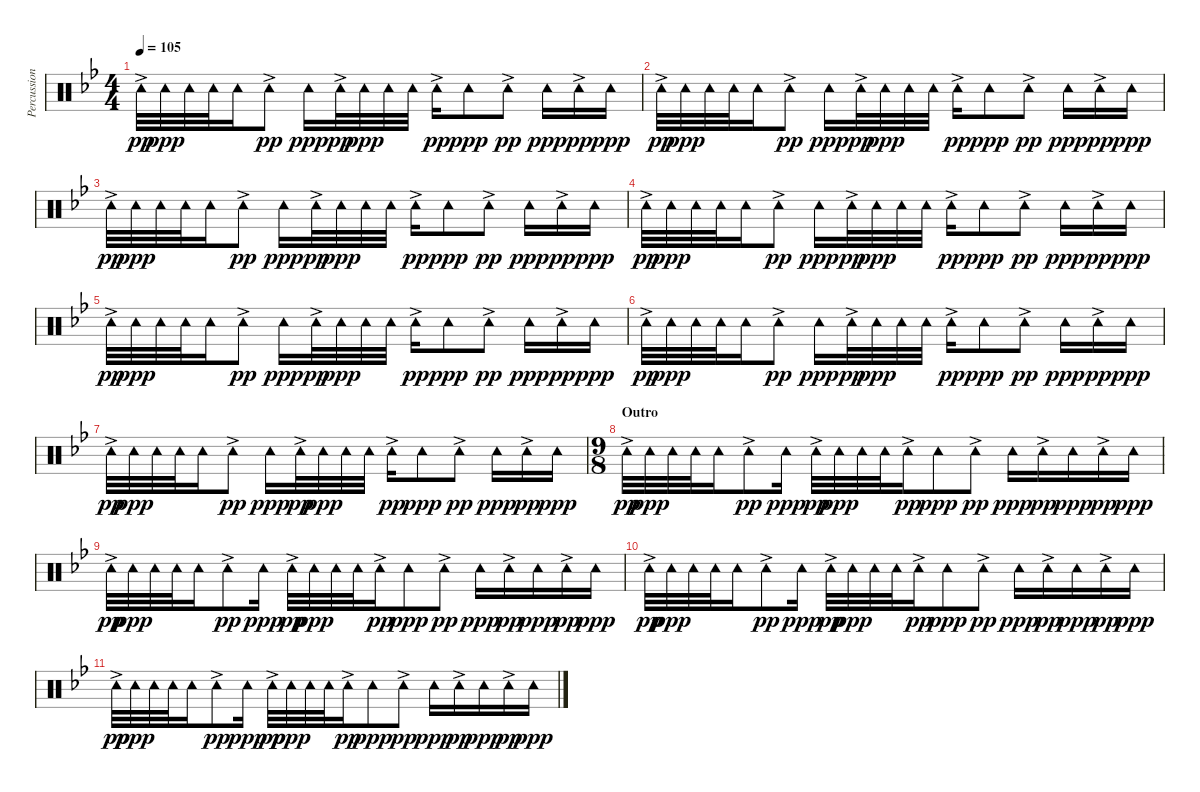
\track ("Percussion" "Percussion") {instrument percussion}
\staff {score}
\articulation defaults
\ts (4 4)
\tempo 105
\clef neutral
\ks bb "Tambourine (hit)"{ac}.32{dy pp} "Tambourine (hit)".32{dy ppp} "Tambourine (hit)".32 "Tambourine (hit)".32 "Tambourine (hit)".16 "Tambourine (hit)"{ac}.8{dy pp} "Tambourine (hit)".16{dy ppp} "Tambourine (hit)"{ac}.32{dy pp} "Tambourine (hit)".32{dy ppp} "Tambourine (hit)".32 "Tambourine (hit)".32 "Tambourine (hit)"{ac}.16{dy pp} "Tambourine (hit)".8{dy ppp} "Tambourine (hit)"{ac}.8{dy pp} "Tambourine (hit)".16{dy ppp} "Tambourine (hit)"{ac}.16{dy pp} "Tambourine (hit)".16{dy ppp}
|
"Tambourine (hit)"{ac}.32{dy pp} "Tambourine (hit)".32{dy ppp} "Tambourine (hit)".32 "Tambourine (hit)".32 "Tambourine (hit)".16 "Tambourine (hit)"{ac}.8{dy pp} "Tambourine (hit)".16{dy ppp} "Tambourine (hit)"{ac}.32{dy pp} "Tambourine (hit)".32{dy ppp} "Tambourine (hit)".32 "Tambourine (hit)".32 "Tambourine (hit)"{ac}.16{dy pp} "Tambourine (hit)".8{dy ppp} "Tambourine (hit)"{ac}.8{dy pp} "Tambourine (hit)".16{dy ppp} "Tambourine (hit)"{ac}.16{dy pp} "Tambourine (hit)".16{dy ppp} |
"Tambourine (hit)"{ac}.32{dy pp} "Tambourine (hit)".32{dy ppp} "Tambourine (hit)".32 "Tambourine (hit)".32 "Tambourine (hit)".16 "Tambourine (hit)"{ac}.8{dy pp} "Tambourine (hit)".16{dy ppp} "Tambourine (hit)"{ac}.32{dy pp} "Tambourine (hit)".32{dy ppp} "Tambourine (hit)".32 "Tambourine (hit)".32 "Tambourine (hit)"{ac}.16{dy pp} "Tambourine (hit)".8{dy ppp} "Tambourine (hit)"{ac}.8{dy pp} "Tambourine (hit)".16{dy ppp} "Tambourine (hit)"{ac}.16{dy pp} "Tambourine (hit)".16{dy ppp} |
"Tambourine (hit)"{ac}.32{dy pp} "Tambourine (hit)".32{dy ppp} "Tambourine (hit)".32 "Tambourine (hit)".32 "Tambourine (hit)".16 "Tambourine (hit)"{ac}.8{dy pp} "Tambourine (hit)".16{dy ppp} "Tambourine (hit)"{ac}.32{dy pp} "Tambourine (hit)".32{dy ppp} "Tambourine (hit)".32 "Tambourine (hit)".32 "Tambourine (hit)"{ac}.16{dy pp} "Tambourine (hit)".8{dy ppp} "Tambourine (hit)"{ac}.8{dy pp} "Tambourine (hit)".16{dy ppp} "Tambourine (hit)"{ac}.16{dy pp} "Tambourine (hit)".16{dy ppp} |
"Tambourine (hit)"{ac}.32{dy pp} "Tambourine (hit)".32{dy ppp} "Tambourine (hit)".32 "Tambourine (hit)".32 "Tambourine (hit)".16 "Tambourine (hit)"{ac}.8{dy pp} "Tambourine (hit)".16{dy ppp} "Tambourine (hit)"{ac}.32{dy pp} "Tambourine (hit)".32{dy ppp} "Tambourine (hit)".32 "Tambourine (hit)".32 "Tambourine (hit)"{ac}.16{dy pp} "Tambourine (hit)".8{dy ppp} "Tambourine (hit)"{ac}.8{dy pp} "Tambourine (hit)".16{dy ppp} "Tambourine (hit)"{ac}.16{dy pp} "Tambourine (hit)".16{dy ppp} |
"Tambourine (hit)"{ac}.32{dy pp} "Tambourine (hit)".32{dy ppp} "Tambourine (hit)".32 "Tambourine (hit)".32 "Tambourine (hit)".16 "Tambourine (hit)"{ac}.8{dy pp} "Tambourine (hit)".16{dy ppp} "Tambourine (hit)"{ac}.32{dy pp} "Tambourine (hit)".32{dy ppp} "Tambourine (hit)".32 "Tambourine (hit)".32 "Tambourine (hit)"{ac}.16{dy pp} "Tambourine (hit)".8{dy ppp} "Tambourine (hit)"{ac}.8{dy pp} "Tambourine (hit)".16{dy ppp} "Tambourine (hit)"{ac}.16{dy pp} "Tambourine (hit)".16{dy ppp} |
"Tambourine (hit)"{ac}.32{dy pp} "Tambourine (hit)".32{dy ppp} "Tambourine (hit)".32 "Tambourine (hit)".32 "Tambourine (hit)".16 "Tambourine (hit)"{ac}.8{dy pp} "Tambourine (hit)".16{dy ppp} "Tambourine (hit)"{ac}.32{dy pp} "Tambourine (hit)".32{dy ppp} "Tambourine (hit)".32 "Tambourine (hit)".32 "Tambourine (hit)"{ac}.16{dy pp} "Tambourine (hit)".8{dy ppp} "Tambourine (hit)"{ac}.8{dy pp} "Tambourine (hit)".16{dy ppp} "Tambourine (hit)"{ac}.16{dy pp} "Tambourine (hit)".16{dy ppp} |
\ts (9 8)
\section ("" "Outro")
"Tambourine (hit)"{ac}.32{dy pp} "Tambourine (hit)".32{dy ppp} "Tambourine (hit)".32 "Tambourine (hit)".32 "Tambourine (hit)".16 "Tambourine (hit)"{ac}.8{dy pp} "Tambourine (hit)".16{dy ppp} "Tambourine (hit)"{ac}.32{dy pp} "Tambourine (hit)".32{dy ppp} "Tambourine (hit)".32 "Tambourine (hit)".32 "Tambourine (hit)"{ac}.16{dy pp} "Tambourine (hit)".8{dy ppp} "Tambourine (hit)"{ac}.8{dy pp} "Tambourine (hit)".16{dy ppp} "Tambourine (hit)"{ac}.16{dy pp} "Tambourine (hit)".16{dy ppp} "Tambourine (hit)"{ac}.16{dy pp} "Tambourine (hit)".16{dy ppp} |
"Tambourine (hit)"{ac}.32{dy pp} "Tambourine (hit)".32{dy ppp} "Tambourine (hit)".32 "Tambourine (hit)".32 "Tambourine (hit)".16 "Tambourine (hit)"{ac}.8{dy pp} "Tambourine (hit)".16{dy ppp} "Tambourine (hit)"{ac}.32{dy pp} "Tambourine (hit)".32{dy ppp} "Tambourine (hit)".32 "Tambourine (hit)".32 "Tambourine (hit)"{ac}.16{dy pp} "Tambourine (hit)".8{dy ppp} "Tambourine (hit)"{ac}.8{dy pp} "Tambourine (hit)".16{dy ppp} "Tambourine (hit)"{ac}.16{dy pp} "Tambourine (hit)".16{dy ppp} "Tambourine (hit)"{ac}.16{dy pp} "Tambourine (hit)".16{dy ppp} |
"Tambourine (hit)"{ac}.32{dy pp} "Tambourine (hit)".32{dy ppp} "Tambourine (hit)".32 "Tambourine (hit)".32 "Tambourine (hit)".16 "Tambourine (hit)"{ac}.8{dy pp} "Tambourine (hit)".16{dy ppp} "Tambourine (hit)"{ac}.32{dy pp} "Tambourine (hit)".32{dy ppp} "Tambourine (hit)".32 "Tambourine (hit)".32 "Tambourine (hit)"{ac}.16{dy pp} "Tambourine (hit)".8{dy ppp} "Tambourine (hit)"{ac}.8{dy pp} "Tambourine (hit)".16{dy ppp} "Tambourine (hit)"{ac}.16{dy pp} "Tambourine (hit)".16{dy ppp} "Tambourine (hit)"{ac}.16{dy pp} "Tambourine (hit)".16{dy ppp} |
"Tambourine (hit)"{ac}.32{dy pp} "Tambourine (hit)".32{dy ppp} "Tambourine (hit)".32 "Tambourine (hit)".32 "Tambourine (hit)".16 "Tambourine (hit)"{ac}.8{dy pp} "Tambourine (hit)".16{dy ppp} "Tambourine (hit)"{ac}.32{dy pp} "Tambourine (hit)".32{dy ppp} "Tambourine (hit)".32 "Tambourine (hit)".32 "Tambourine (hit)"{ac}.16{dy pp} "Tambourine (hit)".8{dy ppp} "Tambourine (hit)"{ac}.8{dy pp} "Tambourine (hit)".16{dy ppp} "Tambourine (hit)"{ac}.16{dy pp} "Tambourine (hit)".16{dy ppp} "Tambourine (hit)"{ac}.16{dy pp} "Tambourine (hit)".16{dy ppp}
